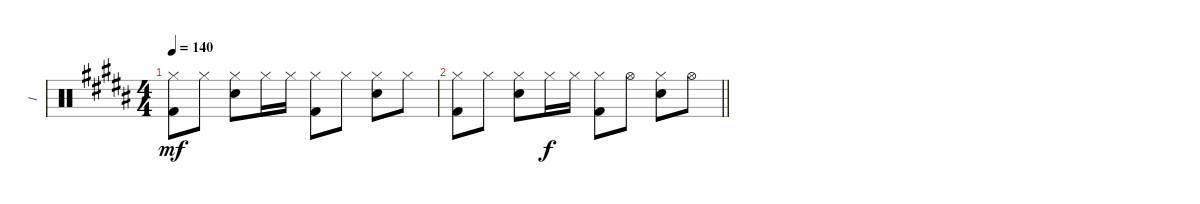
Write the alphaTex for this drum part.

\track ("1" "1") {instrument percussion}
\staff {score}
\articulation defaults
\ts (4 4)
\tempo 140
\clef neutral
\ks b
("Hi-Hat (closed)" "Kick (hit) 2").8{dy mf} "Hi-Hat (closed)".8 ("Hi-Hat (closed)" "Snare (hit) 2").8 "Hi-Hat (closed)".16 "Hi-Hat (closed)".16 ("Hi-Hat (closed)" "Kick (hit) 2").8 "Hi-Hat (closed)".8 ("Hi-Hat (closed)" "Snare (hit) 2").8 "Hi-Hat (closed)".8 |
\barLineRight lightlight
("Hi-Hat (closed)" "Kick (hit) 2").8 "Hi-Hat (closed)".8 ("Hi-Hat (closed)" "Snare (hit) 2").8 "Hi-Hat (closed)".16{dy f} "Hi-Hat (closed)".16 ("Hi-Hat (closed)" "Kick (hit) 2").8 "Hi-Hat (open)".8 ("Hi-Hat (closed)" "Snare (hit) 2").8 "Hi-Hat (open)".8
